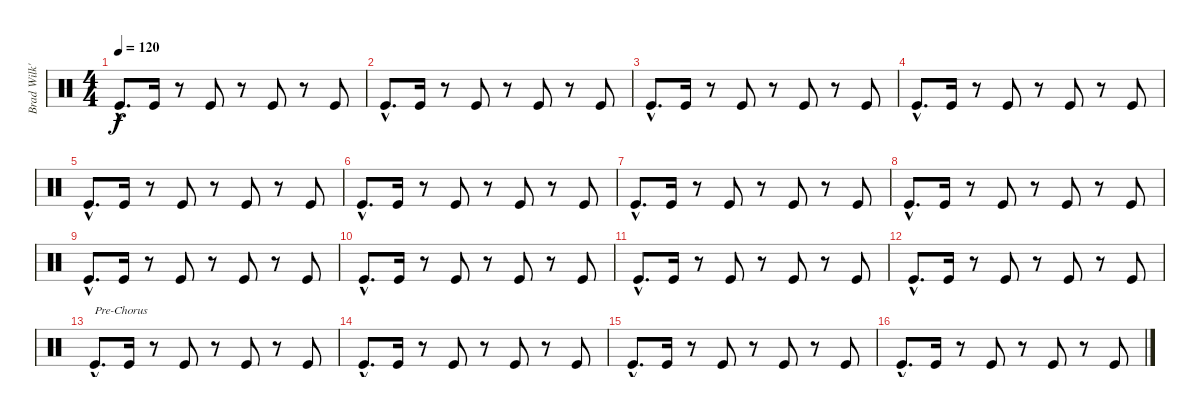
\track ("Brad Wilk's Bass Drum" "Brad Wilk'") {instrument percussion}
\staff {score}
\articulation defaults
\ts (4 4)
\tempo 120
\clef neutral
\ks c "Kick (hit)"{hac}.8{d dy f} "Kick (hit)".16
r.8 "Kick (hit)".8 r.8 "Kick (hit)".8 r.8 "Kick (hit)".8 |
"Kick (hit)"{hac}.8{d} "Kick (hit)".16 r.8 "Kick (hit)".8 r.8 "Kick (hit)".8 r.8 "Kick (hit)".8 |
"Kick (hit)"{hac}.8{d} "Kick (hit)".16 r.8 "Kick (hit)".8 r.8 "Kick (hit)".8 r.8 "Kick (hit)".8 |
"Kick (hit)"{hac}.8{d} "Kick (hit)".16 r.8 "Kick (hit)".8 r.8 "Kick (hit)".8 r.8 "Kick (hit)".8 |
"Kick (hit)"{hac}.8{d} "Kick (hit)".16 r.8 "Kick (hit)".8 r.8 "Kick (hit)".8 r.8 "Kick (hit)".8 |
"Kick (hit)"{hac}.8{d} "Kick (hit)".16 r.8 "Kick (hit)".8 r.8 "Kick (hit)".8 r.8 "Kick (hit)".8 |
"Kick (hit)"{hac}.8{d} "Kick (hit)".16 r.8 "Kick (hit)".8 r.8 "Kick (hit)".8 r.8 "Kick (hit)".8 |
"Kick (hit)"{hac}.8{d} "Kick (hit)".16 r.8 "Kick (hit)".8 r.8 "Kick (hit)".8 r.8 "Kick (hit)".8 |
"Kick (hit)"{hac}.8{d} "Kick (hit)".16 r.8 "Kick (hit)".8 r.8 "Kick (hit)".8 r.8 "Kick (hit)".8 |
"Kick (hit)"{hac}.8{d} "Kick (hit)".16 r.8 "Kick (hit)".8 r.8 "Kick (hit)".8 r.8 "Kick (hit)".8 |
"Kick (hit)"{hac}.8{d} "Kick (hit)".16 r.8 "Kick (hit)".8 r.8 "Kick (hit)".8 r.8 "Kick (hit)".8 |
"Kick (hit)"{hac}.8{d} "Kick (hit)".16 r.8 "Kick (hit)".8 r.8 "Kick (hit)".8 r.8 "Kick (hit)".8 |
"Kick (hit)"{hac}.8{d txt "Pre-Chorus"} "Kick (hit)".16 r.8 "Kick (hit)".8 r.8 "Kick (hit)".8 r.8 "Kick (hit)".8 |
"Kick (hit)"{hac}.8{d} "Kick (hit)".16 r.8 "Kick (hit)".8 r.8 "Kick (hit)".8 r.8 "Kick (hit)".8 |
"Kick (hit)"{hac}.8{d} "Kick (hit)".16 r.8 "Kick (hit)".8 r.8 "Kick (hit)".8 r.8 "Kick (hit)".8 |
"Kick (hit)"{hac}.8{d} "Kick (hit)".16 r.8 "Kick (hit)".8 r.8 "Kick (hit)".8 r.8 "Kick (hit)".8
